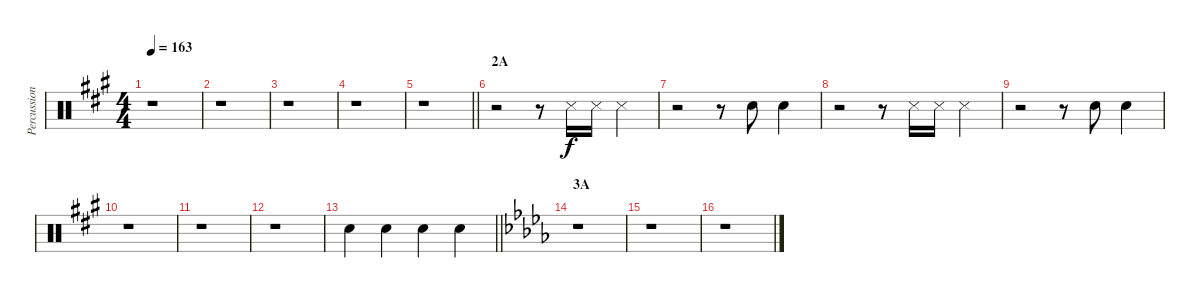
\track ("Percussions" "Percussion") {instrument percussion}
\staff {score}
\articulation defaults
\ts (4 4)
\tempo 163
\clef neutral
\ks a
r.1{dy f} |
r.1 |
r.1 |
r.1 |
\barLineRight lightlight
r.1 |
\section ("" "2A")
r.2 r.8 "Metronome (hit)".16 "Metronome (hit)".16 "Metronome (hit)".4 |
r.2 r.8 "Hand Clap (hit)".8 "Hand Clap (hit)".4 |
r.2 r.8 "Metronome (hit)".16 "Metronome (hit)".16 "Metronome (hit)".4 |
r.2 r.8 "Hand Clap (hit)".8 "Hand Clap (hit)".4 |
r.1 |
r.1 |
r.1 |
\barLineRight lightlight "Hand Clap (hit)".4 "Hand Clap (hit)".4 "Hand Clap (hit)".4 "Hand Clap (hit)".4
|
\section ("" "3A")
\ks db
r.1 |
r.1 |
r.1
